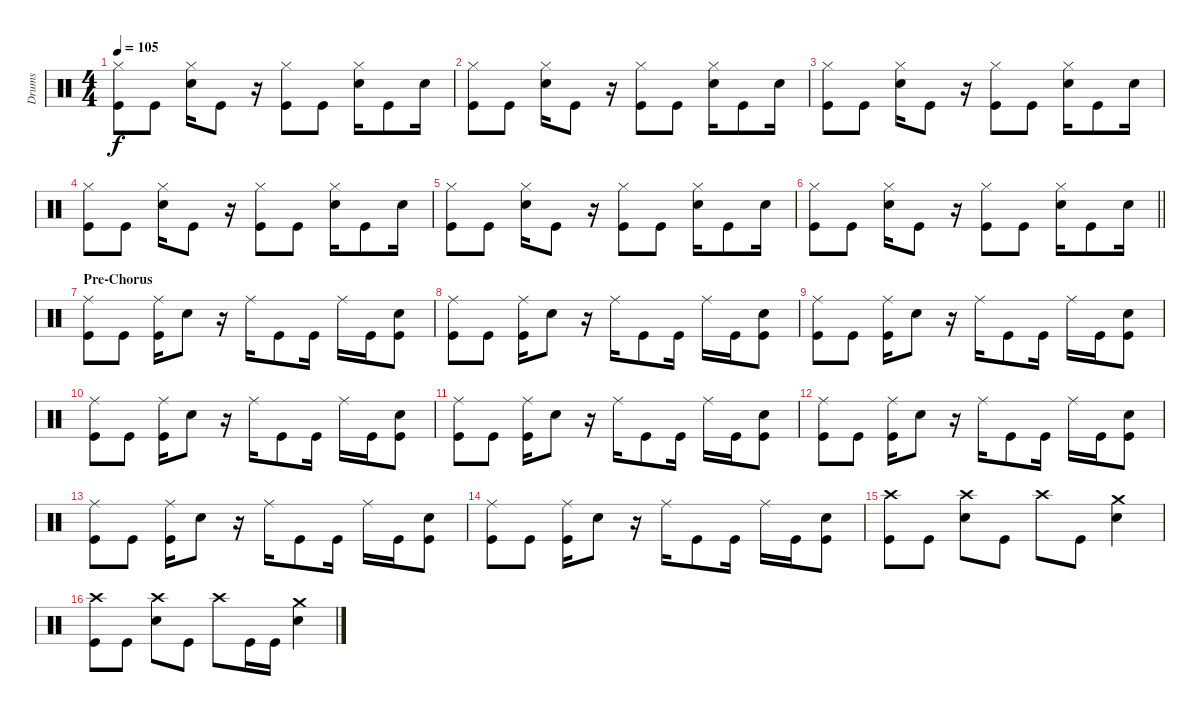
\track ("Drums" "Drums") {instrument percussion}
\staff {score}
\articulation defaults
\ts (4 4)
\tempo 105
\clef neutral
\ks c
("Hi-Hat (closed)" "Kick (hit)").8{dy f} "Kick (hit)".8 ("Hi-Hat (closed)" "Snare (hit) 2").16 "Kick (hit)".8 r.16 ("Hi-Hat (closed)" "Kick (hit)").8 "Kick (hit)".8 ("Hi-Hat (closed)" "Snare (hit) 2").16 "Kick (hit)".8 "Snare (hit) 2".16 |
("Hi-Hat (closed)" "Kick (hit)").8 "Kick (hit)".8 ("Hi-Hat (closed)" "Snare (hit) 2").16 "Kick (hit)".8 r.16 ("Hi-Hat (closed)" "Kick (hit)").8 "Kick (hit)".8 ("Hi-Hat (closed)" "Snare (hit) 2").16 "Kick (hit)".8 "Snare (hit) 2".16 |
("Hi-Hat (closed)" "Kick (hit)").8 "Kick (hit)".8 ("Hi-Hat (closed)" "Snare (hit) 2").16 "Kick (hit)".8 r.16 ("Hi-Hat (closed)" "Kick (hit)").8 "Kick (hit)".8 ("Hi-Hat (closed)" "Snare (hit) 2").16 "Kick (hit)".8 "Snare (hit) 2".16 |
("Hi-Hat (closed)" "Kick (hit)").8 "Kick (hit)".8 ("Hi-Hat (closed)" "Snare (hit) 2").16 "Kick (hit)".8 r.16 ("Hi-Hat (closed)" "Kick (hit)").8 "Kick (hit)".8 ("Hi-Hat (closed)" "Snare (hit) 2").16 "Kick (hit)".8 "Snare (hit) 2".16 |
("Hi-Hat (closed)" "Kick (hit)").8 "Kick (hit)".8 ("Hi-Hat (closed)" "Snare (hit) 2").16 "Kick (hit)".8 r.16 ("Hi-Hat (closed)" "Kick (hit)").8 "Kick (hit)".8 ("Hi-Hat (closed)" "Snare (hit) 2").16 "Kick (hit)".8 "Snare (hit) 2".16 |
\barLineRight lightlight
("Hi-Hat (closed)" "Kick (hit)").8 "Kick (hit)".8 ("Hi-Hat (closed)" "Snare (hit) 2").16 "Kick (hit)".8 r.16 ("Hi-Hat (closed)" "Kick (hit)").8 "Kick (hit)".8 ("Hi-Hat (closed)" "Snare (hit) 2").16 "Kick (hit)".8 "Snare (hit) 2".16 |
\section ("" "Pre-Chorus")
("Ride (middle)" "Kick (hit)").8 "Kick (hit)".8 ("Ride (middle)" "Kick (hit)").16 "Snare (hit) 2".8 r.16 "Ride (middle)".16 "Kick (hit)".8 "Kick (hit)".16 "Ride (middle)".16 "Kick (hit)".16 ("Snare (hit) 2" "Kick (hit)").8 |
("Ride (middle)" "Kick (hit)").8 "Kick (hit)".8 ("Ride (middle)" "Kick (hit)").16 "Snare (hit) 2".8 r.16 "Ride (middle)".16 "Kick (hit)".8 "Kick (hit)".16 "Ride (middle)".16 "Kick (hit)".16 ("Snare (hit) 2" "Kick (hit)").8 |
("Ride (middle)" "Kick (hit)").8 "Kick (hit)".8 ("Ride (middle)" "Kick (hit)").16 "Snare (hit) 2".8 r.16 "Ride (middle)".16 "Kick (hit)".8 "Kick (hit)".16 "Ride (middle)".16 "Kick (hit)".16 ("Snare (hit) 2" "Kick (hit)").8 |
("Ride (middle)" "Kick (hit)").8 "Kick (hit)".8 ("Ride (middle)" "Kick (hit)").16 "Snare (hit) 2".8 r.16 "Ride (middle)".16 "Kick (hit)".8 "Kick (hit)".16 "Ride (middle)".16 "Kick (hit)".16 ("Snare (hit) 2" "Kick (hit)").8 |
("Ride (middle)" "Kick (hit)").8 "Kick (hit)".8 ("Ride (middle)" "Kick (hit)").16 "Snare (hit) 2".8 r.16 "Ride (middle)".16 "Kick (hit)".8 "Kick (hit)".16 "Ride (middle)".16 "Kick (hit)".16 ("Snare (hit) 2" "Kick (hit)").8 |
("Ride (middle)" "Kick (hit)").8 "Kick (hit)".8 ("Ride (middle)" "Kick (hit)").16 "Snare (hit) 2".8 r.16 "Ride (middle)".16 "Kick (hit)".8 "Kick (hit)".16 "Ride (middle)".16 "Kick (hit)".16 ("Snare (hit) 2" "Kick (hit)").8 |
("Ride (middle)" "Kick (hit)").8 "Kick (hit)".8 ("Ride (middle)" "Kick (hit)").16 "Snare (hit) 2".8 r.16 "Ride (middle)".16 "Kick (hit)".8 "Kick (hit)".16 "Ride (middle)".16 "Kick (hit)".16 ("Snare (hit) 2" "Kick (hit)").8 |
("Ride (middle)" "Kick (hit)").8 "Kick (hit)".8 ("Ride (middle)" "Kick (hit)").16 "Snare (hit) 2".8 r.16 "Ride (middle)".16 "Kick (hit)".8 "Kick (hit)".16 "Ride (middle)".16 "Kick (hit)".16 ("Snare (hit) 2" "Kick (hit)").8 |
("Crash high (hit)" "Kick (hit)").8 "Kick (hit)".8 ("Crash high (hit)" "Snare (hit) 2").8 "Kick (hit)".8 "Crash high (hit)".8 "Kick (hit)".8 ("Crash medium (hit)" "Snare (hit) 2").4 |
("Crash high (hit)" "Kick (hit)").8 "Kick (hit)".8 ("Crash high (hit)" "Snare (hit) 2").8 "Kick (hit)".8 "Crash high (hit)".8 "Kick (hit)".16 "Kick (hit)".16 ("Crash medium (hit)" "Snare (hit) 2").4
